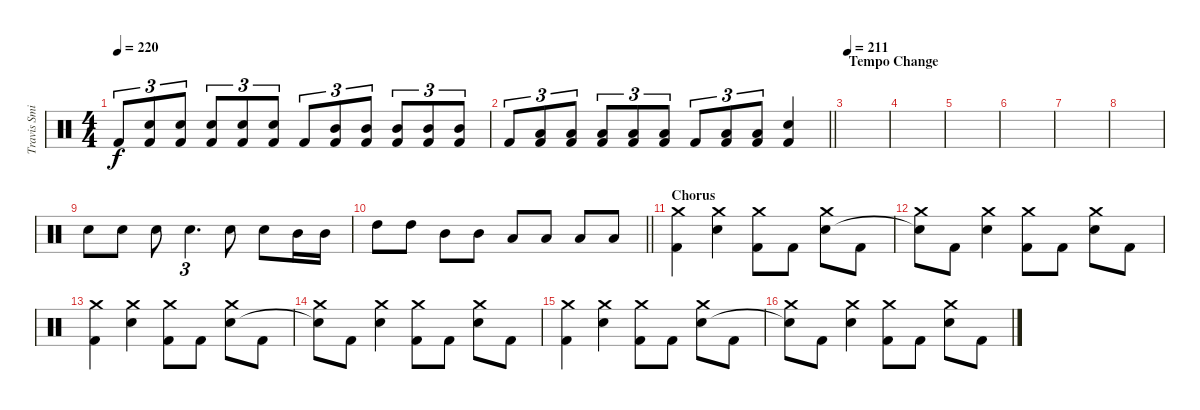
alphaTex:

\track ("Travis Smith" "Travis Smi") {instrument percussion}
\staff {score}
\articulation defaults
\ts (4 4)
\tempo 220
\clef neutral
\ks c "Kick (hit) 2".8{tu (3 2) dy f}
("Electric Snare (hit)" "Kick (hit) 2").8{tu (3 2)} ("Electric Snare (hit)" "Kick (hit) 2").8{tu (3 2)} ("Electric Snare (hit)" "Kick (hit) 2").8{tu (3 2)} ("Electric Snare (hit)" "Kick (hit) 2").8{tu (3 2)} ("Electric Snare (hit)" "Kick (hit) 2").8{tu (3 2)} "Kick (hit) 2".8{tu (3 2)} ("Mid Tom (hit)" "Kick (hit) 2").8{tu (3 2)} ("Mid Tom (hit)" "Kick (hit) 2").8{tu (3 2)} ("Mid Tom (hit)" "Kick (hit) 2").8{tu (3 2)} ("Mid Tom (hit)" "Kick (hit) 2").8{tu (3 2)} ("Mid Tom (hit)" "Kick (hit) 2").8{tu (3 2)} |
\barLineRight lightlight "Kick (hit) 2".8{tu (3 2)}
("Low Tom (hit)" "Kick (hit) 2").8{tu (3 2)} ("Low Tom (hit)" "Kick (hit) 2").8{tu (3 2)} ("Low Tom (hit)" "Kick (hit) 2").8{tu (3 2)} ("Low Tom (hit)" "Kick (hit) 2").8{tu (3 2)} ("Low Tom (hit)" "Kick (hit) 2").8{tu (3 2)} "Kick (hit) 2".8{tu (3 2)} ("Low Floor Tom (hit)" "Kick (hit) 2").8{tu (3 2)} ("Low Floor Tom (hit)" "Kick (hit) 2").8{tu (3 2)} ("Electric Snare (hit)" "Kick (hit) 2").4 |
\section ("" "Tempo Change")
\tempo 211
|
|
|
|
|
|
"Electric Snare (hit)".8 "Electric Snare (hit)".8 "Electric Snare (hit)".8 "Electric Snare (hit)".4{d tu (3 2)} "Electric Snare (hit)".8 "Electric Snare (hit)".8 "Mid Tom (hit)".16 "Mid Tom (hit)".16 |
\barLineRight lightlight "High Tom (hit)".8 "High Tom (hit)".8 "Mid Tom (hit)".8 "Mid Tom (hit)".8 "Low Tom (hit)".8 "Low Tom (hit)".8 "Low Floor Tom (hit)".8 "Low Floor Tom (hit)".8
|
\section ("" "Chorus")
("Crash medium (hit)" "Kick (hit) 2").4 ("Crash medium (hit)" "Electric Snare (hit)").4 ("Crash medium (hit)" "Kick (hit) 2").8 "Kick (hit) 2".8 ("Crash medium (hit)" "Electric Snare (hit)").8 "Kick (hit) 2".8 |
("Crash medium (hit)" "Snare (hit)"{t}).8 "Kick (hit) 2".8 ("Crash medium (hit)" "Electric Snare (hit)").4 ("Crash medium (hit)" "Kick (hit) 2").8 "Kick (hit) 2".8 ("Crash medium (hit)" "Electric Snare (hit)").8 "Kick (hit) 2".8 |
("Crash medium (hit)" "Kick (hit) 2").4 ("Crash medium (hit)" "Electric Snare (hit)").4 ("Crash medium (hit)" "Kick (hit) 2").8 "Kick (hit) 2".8 ("Crash medium (hit)" "Electric Snare (hit)").8 "Kick (hit) 2".8 |
("Crash medium (hit)" "Snare (hit)"{t}).8 "Kick (hit) 2".8 ("Crash medium (hit)" "Electric Snare (hit)").4 ("Crash medium (hit)" "Kick (hit) 2").8 "Kick (hit) 2".8 ("Crash medium (hit)" "Electric Snare (hit)").8 "Kick (hit) 2".8 |
("Crash medium (hit)" "Kick (hit) 2").4 ("Crash medium (hit)" "Electric Snare (hit)").4 ("Crash medium (hit)" "Kick (hit) 2").8 "Kick (hit) 2".8 ("Crash medium (hit)" "Electric Snare (hit)").8 "Kick (hit) 2".8 |
("Crash medium (hit)" "Snare (hit)"{t}).8 "Kick (hit) 2".8 ("Crash medium (hit)" "Electric Snare (hit)").4 ("Crash medium (hit)" "Kick (hit) 2").8 "Kick (hit) 2".8 ("Crash medium (hit)" "Electric Snare (hit)").8 "Kick (hit) 2".8
